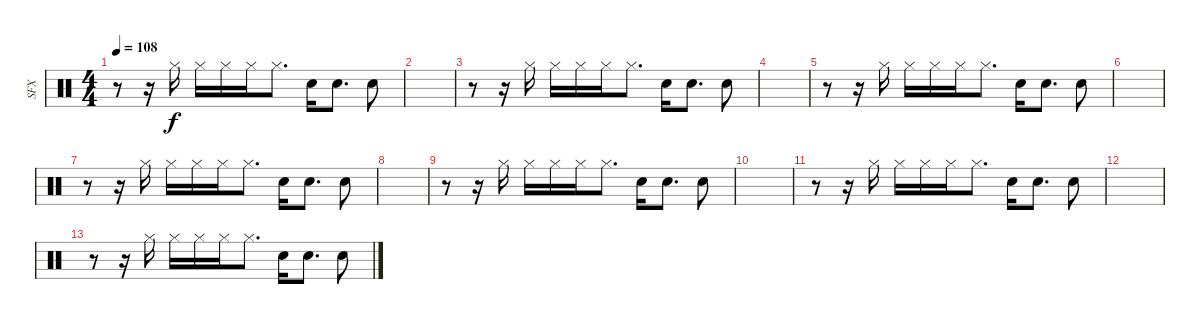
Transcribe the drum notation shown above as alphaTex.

\track ("SFX" "SFX") {instrument percussion}
\staff {score}
\articulation defaults
\ts (4 4)
\tempo 108
\clef neutral
\ks c
r.8{dy f} r.16 "Hi-Hat (closed)".16 "Hi-Hat (closed)".16 "Hi-Hat (closed)".16 "Hi-Hat (closed)".16 "Hi-Hat (closed)".8{d} "Hand Clap (hit)".16 "Hand Clap (hit)".8{d} "Hand Clap (hit)".8 |
|
r.8 r.16 "Hi-Hat (closed)".16 "Hi-Hat (closed)".16 "Hi-Hat (closed)".16 "Hi-Hat (closed)".16 "Hi-Hat (closed)".8{d} "Hand Clap (hit)".16 "Hand Clap (hit)".8{d} "Hand Clap (hit)".8 |
|
r.8 r.16 "Hi-Hat (closed)".16 "Hi-Hat (closed)".16 "Hi-Hat (closed)".16 "Hi-Hat (closed)".16 "Hi-Hat (closed)".8{d} "Hand Clap (hit)".16 "Hand Clap (hit)".8{d} "Hand Clap (hit)".8 |
|
r.8 r.16 "Hi-Hat (closed)".16 "Hi-Hat (closed)".16 "Hi-Hat (closed)".16 "Hi-Hat (closed)".16 "Hi-Hat (closed)".8{d} "Hand Clap (hit)".16 "Hand Clap (hit)".8{d} "Hand Clap (hit)".8 |
|
r.8 r.16 "Hi-Hat (closed)".16 "Hi-Hat (closed)".16 "Hi-Hat (closed)".16 "Hi-Hat (closed)".16 "Hi-Hat (closed)".8{d} "Hand Clap (hit)".16 "Hand Clap (hit)".8{d} "Hand Clap (hit)".8 |
|
r.8 r.16 "Hi-Hat (closed)".16 "Hi-Hat (closed)".16 "Hi-Hat (closed)".16 "Hi-Hat (closed)".16 "Hi-Hat (closed)".8{d} "Hand Clap (hit)".16 "Hand Clap (hit)".8{d} "Hand Clap (hit)".8 |
|
r.8 r.16 "Hi-Hat (closed)".16 "Hi-Hat (closed)".16 "Hi-Hat (closed)".16 "Hi-Hat (closed)".16 "Hi-Hat (closed)".8{d} "Hand Clap (hit)".16 "Hand Clap (hit)".8{d} "Hand Clap (hit)".8
